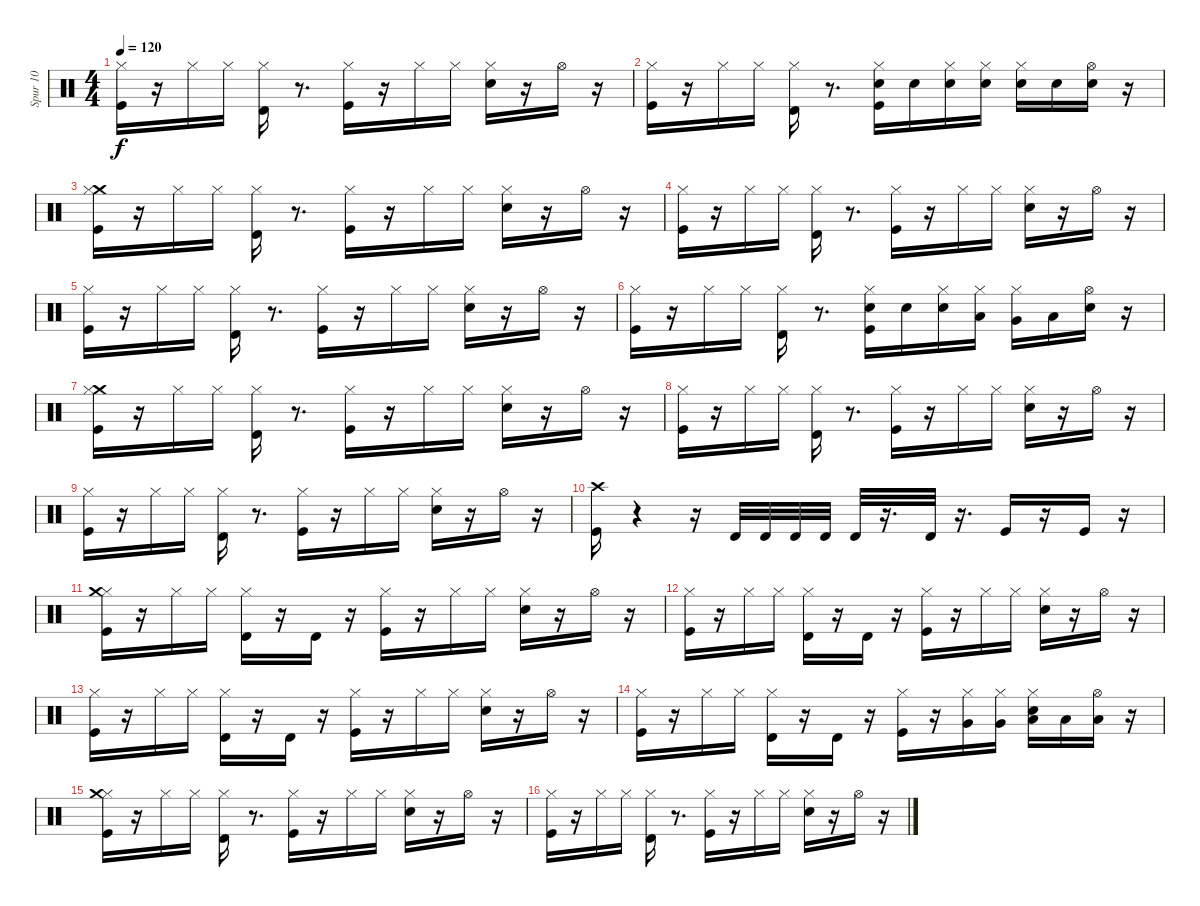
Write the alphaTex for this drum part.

\track ("Spur 10" "Spur 10") {instrument percussion}
\staff {score}
\articulation defaults
\ts (4 4)
\tempo 120
\clef neutral
\ks c
("Hi-Hat (closed)" "Kick (hit)").16{dy f} r.16 "Hi-Hat (closed)".16 "Hi-Hat (closed)".16 ("Hi-Hat (closed)" "Timbale high (hit)").16 r.8{d} ("Hi-Hat (closed)" "Kick (hit)").16 r.16 "Hi-Hat (closed)".16 "Hi-Hat (closed)".16 ("Hi-Hat (closed)" "Snare (hit) 2").16 r.16 "Hi-Hat (open)".16 r.16 |
("Hi-Hat (closed)" "Kick (hit)").16 r.16 "Hi-Hat (closed)".16 "Hi-Hat (closed)".16 ("Hi-Hat (closed)" "Timbale high (hit)").16 r.8{d} ("Electric Snare (hit)" "Hi-Hat (closed)" "Kick (hit)").16 "Electric Snare (hit)".16 ("Electric Snare (hit)" "Hi-Hat (closed)").16 ("Electric Snare (hit)" "Hi-Hat (closed)").16 ("Hi-Hat (closed)" "Electric Snare (hit)").16 "Electric Snare (hit)".16 ("Electric Snare (hit)" "Hi-Hat (open)").16 r.16 |
("Crash medium (hit)" "Hi-Hat (closed)" "Kick (hit)").16 r.16 "Hi-Hat (closed)".16 "Hi-Hat (closed)".16 ("Hi-Hat (closed)" "Timbale high (hit)").16 r.8{d} ("Hi-Hat (closed)" "Kick (hit)").16 r.16 "Hi-Hat (closed)".16 "Hi-Hat (closed)".16 ("Hi-Hat (closed)" "Snare (hit) 2").16 r.16 "Hi-Hat (open)".16 r.16 |
("Hi-Hat (closed)" "Kick (hit)").16 r.16 "Hi-Hat (closed)".16 "Hi-Hat (closed)".16 ("Hi-Hat (closed)" "Timbale high (hit)").16 r.8{d} ("Hi-Hat (closed)" "Kick (hit)").16 r.16 "Hi-Hat (closed)".16 "Hi-Hat (closed)".16 ("Hi-Hat (closed)" "Snare (hit) 2").16 r.16 "Hi-Hat (open)".16 r.16 |
("Hi-Hat (closed)" "Kick (hit)").16 r.16 "Hi-Hat (closed)".16 "Hi-Hat (closed)".16 ("Hi-Hat (closed)" "Timbale high (hit)").16 r.8{d} ("Hi-Hat (closed)" "Kick (hit)").16 r.16 "Hi-Hat (closed)".16 "Hi-Hat (closed)".16 ("Hi-Hat (closed)" "Snare (hit) 2").16 r.16 "Hi-Hat (open)".16 r.16 |
("Hi-Hat (closed)" "Kick (hit)").16 r.16 "Hi-Hat (closed)".16 "Hi-Hat (closed)".16 ("Hi-Hat (closed)" "Timbale high (hit)").16 r.8{d} ("Electric Snare (hit)" "Hi-Hat (closed)" "Kick (hit)").16 "Electric Snare (hit)".16 ("Electric Snare (hit)" "Hi-Hat (closed)").16 ("Low Floor Tom (hit)" "Hi-Hat (closed)").16 ("Hi-Hat (closed)" "Very Low Tom (hit)").16 "Low Tom (hit)".16 ("Electric Snare (hit)" "Hi-Hat (open)").16 r.16 |
("Crash medium (hit)" "Hi-Hat (closed)" "Kick (hit)").16 r.16 "Hi-Hat (closed)".16 "Hi-Hat (closed)".16 ("Hi-Hat (closed)" "Timbale high (hit)").16 r.8{d} ("Hi-Hat (closed)" "Kick (hit)").16 r.16 "Hi-Hat (closed)".16 "Hi-Hat (closed)".16 ("Hi-Hat (closed)" "Snare (hit) 2").16 r.16 "Hi-Hat (open)".16 r.16 |
("Hi-Hat (closed)" "Kick (hit)").16 r.16 "Hi-Hat (closed)".16 "Hi-Hat (closed)".16 ("Hi-Hat (closed)" "Timbale high (hit)").16 r.8{d} ("Hi-Hat (closed)" "Kick (hit)").16 r.16 "Hi-Hat (closed)".16 "Hi-Hat (closed)".16 ("Hi-Hat (closed)" "Snare (hit) 2").16 r.16 "Hi-Hat (open)".16 r.16 |
("Hi-Hat (closed)" "Kick (hit)").16 r.16 "Hi-Hat (closed)".16 "Hi-Hat (closed)".16 ("Hi-Hat (closed)" "Timbale high (hit)").16 r.8{d} ("Hi-Hat (closed)" "Kick (hit)").16 r.16 "Hi-Hat (closed)".16 "Hi-Hat (closed)".16 ("Hi-Hat (closed)" "Snare (hit) 2").16 r.16 "Hi-Hat (open)".16 r.16 |
("Crash high (hit)" "Kick (hit)").16 r.4 r.16 "Timbale high (hit)".32 "Timbale high (hit)".32 "Timbale high (hit)".32 "Timbale high (hit)".32 "Timbale high (hit)".32 r.16{d} "Timbale high (hit)".32 r.16{d} "Kick (hit)".16 r.16 "Kick (hit)".16 r.16 |
("Hi-Hat (closed)" "Kick (hit)" "Crash medium (hit)").16 r.16 "Hi-Hat (closed)".16 "Hi-Hat (closed)".16 ("Hi-Hat (closed)" "Timbale high (hit)").16 r.16 "Timbale high (hit)".16 r.16 ("Hi-Hat (closed)" "Kick (hit)").16 r.16 "Hi-Hat (closed)".16 "Hi-Hat (closed)".16 ("Hi-Hat (closed)" "Snare (hit) 2").16 r.16 "Hi-Hat (open)".16 r.16 |
("Hi-Hat (closed)" "Kick (hit)").16 r.16 "Hi-Hat (closed)".16 "Hi-Hat (closed)".16 ("Hi-Hat (closed)" "Timbale high (hit)").16 r.16 "Timbale high (hit)".16 r.16 ("Hi-Hat (closed)" "Kick (hit)").16 r.16 "Hi-Hat (closed)".16 "Hi-Hat (closed)".16 ("Hi-Hat (closed)" "Snare (hit) 2").16 r.16 "Hi-Hat (open)".16 r.16 |
("Hi-Hat (closed)" "Kick (hit)").16 r.16 "Hi-Hat (closed)".16 "Hi-Hat (closed)".16 ("Hi-Hat (closed)" "Timbale high (hit)").16 r.16 "Timbale high (hit)".16 r.16 ("Hi-Hat (closed)" "Kick (hit)").16 r.16 "Hi-Hat (closed)".16 "Hi-Hat (closed)".16 ("Hi-Hat (closed)" "Snare (hit) 2").16 r.16 "Hi-Hat (open)".16 r.16 |
("Hi-Hat (closed)" "Kick (hit)").16 r.16 "Hi-Hat (closed)".16 "Hi-Hat (closed)".16 ("Hi-Hat (closed)" "Timbale high (hit)").16 r.16 "Timbale high (hit)".16 r.16 ("Hi-Hat (closed)" "Kick (hit)").16 r.16 ("Very Low Tom (hit)" "Hi-Hat (closed)").16 ("Very Low Tom (hit)" "Hi-Hat (closed)").16 ("Low Floor Tom (hit)" "Hi-Hat (closed)" "Snare (hit) 2").16 "Low Floor Tom (hit)".16 ("Low Floor Tom (hit)" "Hi-Hat (open)").16 r.16 |
("Hi-Hat (closed)" "Kick (hit)" "Crash medium (hit)").16 r.16 "Hi-Hat (closed)".16 "Hi-Hat (closed)".16 ("Hi-Hat (closed)" "Timbale high (hit)").16 r.8{d} ("Hi-Hat (closed)" "Kick (hit)").16 r.16 "Hi-Hat (closed)".16 "Hi-Hat (closed)".16 ("Hi-Hat (closed)" "Snare (hit) 2").16 r.16 "Hi-Hat (open)".16 r.16 |
("Hi-Hat (closed)" "Kick (hit)").16 r.16 "Hi-Hat (closed)".16 "Hi-Hat (closed)".16 ("Hi-Hat (closed)" "Timbale high (hit)").16 r.8{d} ("Hi-Hat (closed)" "Kick (hit)").16 r.16 "Hi-Hat (closed)".16 "Hi-Hat (closed)".16 ("Hi-Hat (closed)" "Snare (hit) 2").16 r.16 "Hi-Hat (open)".16 r.16
